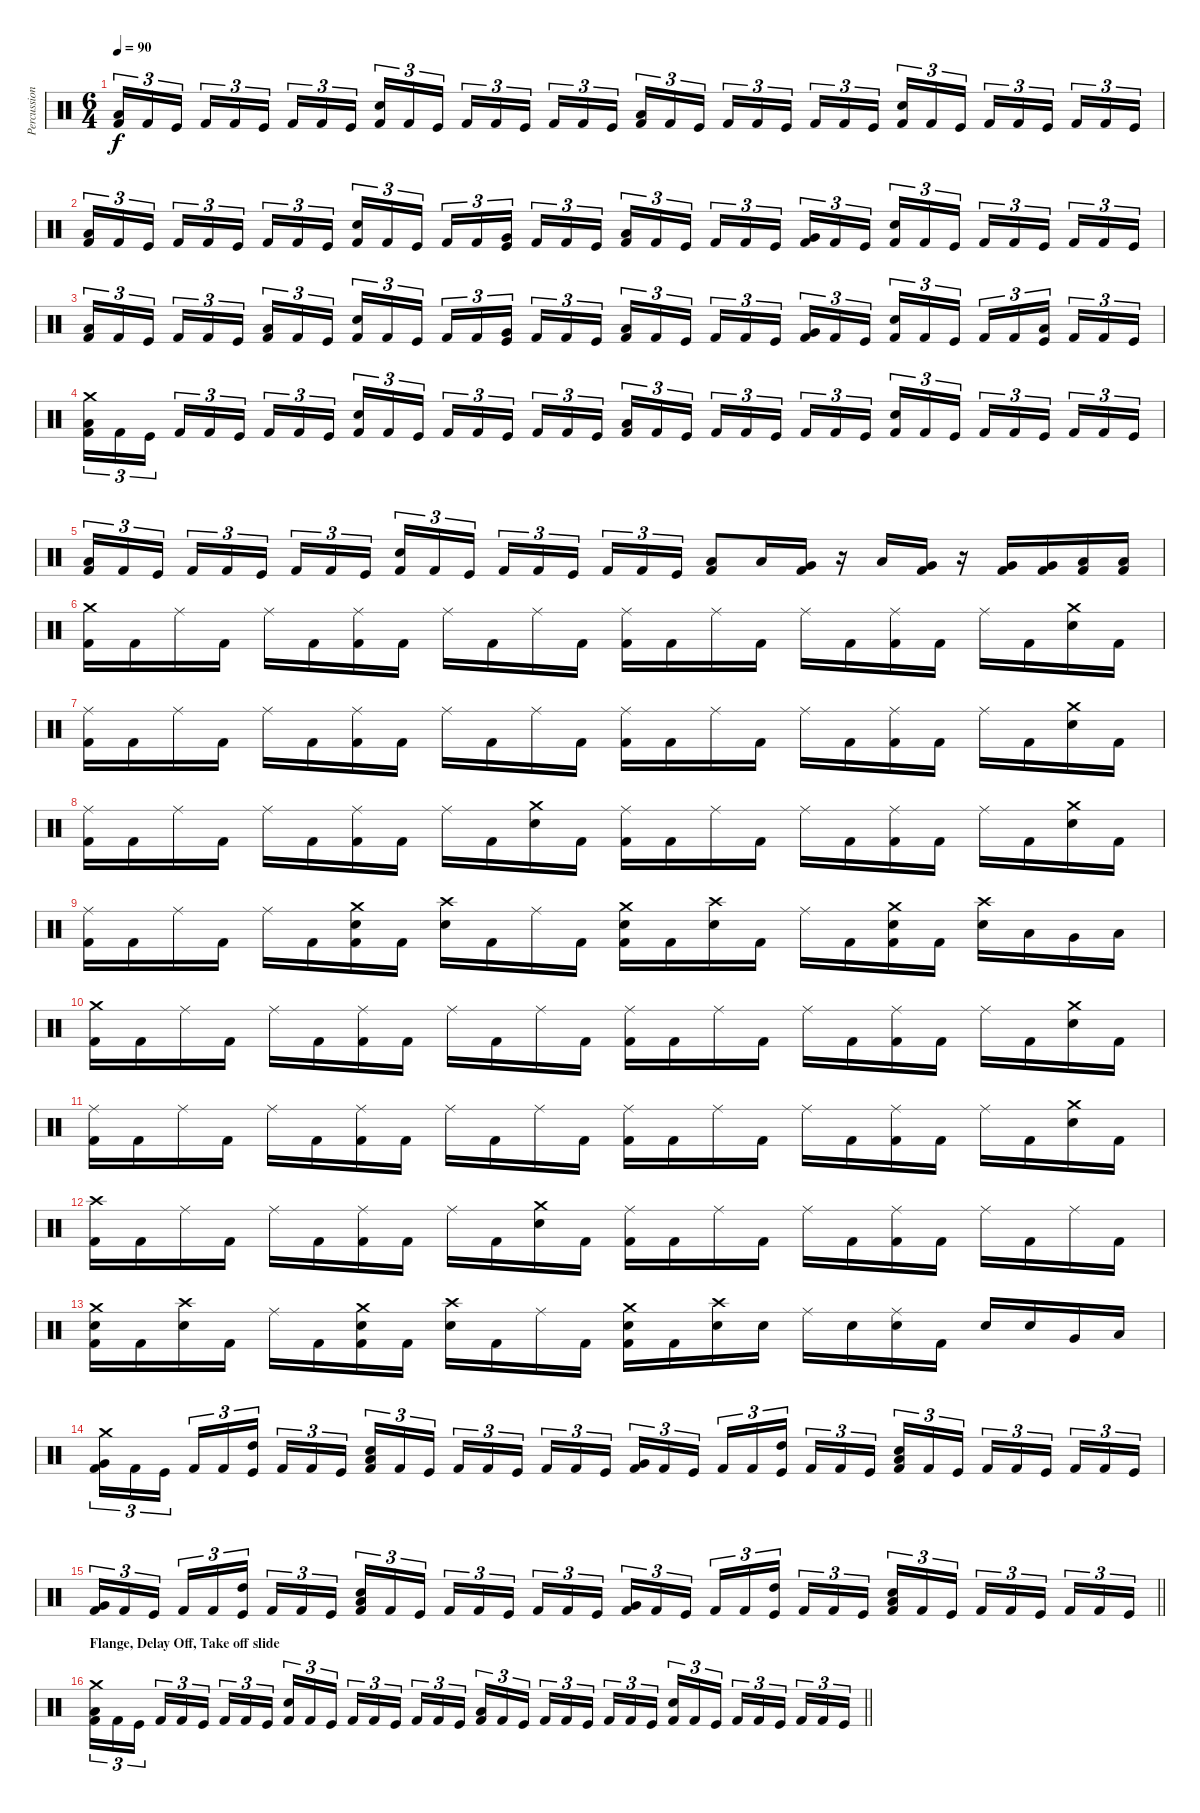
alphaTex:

\track ("Percussion" "Percussion") {instrument percussion}
\staff {score}
\articulation defaults
\ts (6 4)
\tempo 90
\clef neutral
\ks c
("Low Floor Tom (hit)" "Kick (hit) 2").16{tu (3 2) dy f} "Kick (hit) 2".16{tu (3 2)} "Kick (hit)".16{tu (3 2)} "Kick (hit) 2".16{tu (3 2)} "Kick (hit) 2".16{tu (3 2)} "Kick (hit)".16{tu (3 2)} "Kick (hit) 2".16{tu (3 2)} "Kick (hit) 2".16{tu (3 2)} "Kick (hit)".16{tu (3 2)} ("Electric Snare (hit)" "Kick (hit) 2").16{tu (3 2)} "Kick (hit) 2".16{tu (3 2)} "Kick (hit)".16{tu (3 2)} "Kick (hit) 2".16{tu (3 2)} "Kick (hit) 2".16{tu (3 2)} "Kick (hit)".16{tu (3 2)} "Kick (hit) 2".16{tu (3 2)} "Kick (hit) 2".16{tu (3 2)} "Kick (hit)".16{tu (3 2)} ("Low Floor Tom (hit)" "Kick (hit) 2").16{tu (3 2)} "Kick (hit) 2".16{tu (3 2)} "Kick (hit)".16{tu (3 2)} "Kick (hit) 2".16{tu (3 2)} "Kick (hit) 2".16{tu (3 2)} "Kick (hit)".16{tu (3 2)} "Kick (hit) 2".16{tu (3 2)} "Kick (hit) 2".16{tu (3 2)} "Kick (hit)".16{tu (3 2)} ("Electric Snare (hit)" "Kick (hit) 2").16{tu (3 2)} "Kick (hit) 2".16{tu (3 2)} "Kick (hit)".16{tu (3 2)} "Kick (hit) 2".16{tu (3 2)} "Kick (hit) 2".16{tu (3 2)} "Kick (hit)".16{tu (3 2)} "Kick (hit) 2".16{tu (3 2)} "Kick (hit) 2".16{tu (3 2)} "Kick (hit)".16{tu (3 2)} |
("Low Floor Tom (hit)" "Kick (hit) 2").16{tu (3 2)} "Kick (hit) 2".16{tu (3 2)} "Kick (hit)".16{tu (3 2)} "Kick (hit) 2".16{tu (3 2)} "Kick (hit) 2".16{tu (3 2)} "Kick (hit)".16{tu (3 2)} "Kick (hit) 2".16{tu (3 2)} "Kick (hit) 2".16{tu (3 2)} "Kick (hit)".16{tu (3 2)} ("Electric Snare (hit)" "Kick (hit) 2").16{tu (3 2)} "Kick (hit) 2".16{tu (3 2)} "Kick (hit)".16{tu (3 2)} "Kick (hit) 2".16{tu (3 2)} "Kick (hit) 2".16{tu (3 2)} ("Very Low Tom (hit)" "Kick (hit)").16{tu (3 2)} "Kick (hit) 2".16{tu (3 2)} "Kick (hit) 2".16{tu (3 2)} "Kick (hit)".16{tu (3 2)} ("Low Floor Tom (hit)" "Kick (hit) 2").16{tu (3 2)} "Kick (hit) 2".16{tu (3 2)} "Kick (hit)".16{tu (3 2)} "Kick (hit) 2".16{tu (3 2)} "Kick (hit) 2".16{tu (3 2)} "Kick (hit)".16{tu (3 2)} ("Very Low Tom (hit)" "Kick (hit) 2").16{tu (3 2)} "Kick (hit) 2".16{tu (3 2)} "Kick (hit)".16{tu (3 2)} ("Electric Snare (hit)" "Kick (hit) 2").16{tu (3 2)} "Kick (hit) 2".16{tu (3 2)} "Kick (hit)".16{tu (3 2)} "Kick (hit) 2".16{tu (3 2)} "Kick (hit) 2".16{tu (3 2)} "Kick (hit)".16{tu (3 2)} "Kick (hit) 2".16{tu (3 2)} "Kick (hit) 2".16{tu (3 2)} "Kick (hit)".16{tu (3 2)} |
("Low Floor Tom (hit)" "Kick (hit) 2").16{tu (3 2)} "Kick (hit) 2".16{tu (3 2)} "Kick (hit)".16{tu (3 2)} "Kick (hit) 2".16{tu (3 2)} "Kick (hit) 2".16{tu (3 2)} "Kick (hit)".16{tu (3 2)} ("Low Tom (hit)" "Kick (hit) 2").16{tu (3 2)} "Kick (hit) 2".16{tu (3 2)} "Kick (hit)".16{tu (3 2)} ("Electric Snare (hit)" "Kick (hit) 2").16{tu (3 2)} "Kick (hit) 2".16{tu (3 2)} "Kick (hit)".16{tu (3 2)} "Kick (hit) 2".16{tu (3 2)} "Kick (hit) 2".16{tu (3 2)} ("Very Low Tom (hit)" "Kick (hit)").16{tu (3 2)} "Kick (hit) 2".16{tu (3 2)} "Kick (hit) 2".16{tu (3 2)} "Kick (hit)".16{tu (3 2)} ("Low Floor Tom (hit)" "Kick (hit) 2").16{tu (3 2)} "Kick (hit) 2".16{tu (3 2)} "Kick (hit)".16{tu (3 2)} "Kick (hit) 2".16{tu (3 2)} "Kick (hit) 2".16{tu (3 2)} "Kick (hit)".16{tu (3 2)} ("Very Low Tom (hit)" "Kick (hit) 2").16{tu (3 2)} "Kick (hit) 2".16{tu (3 2)} "Kick (hit)".16{tu (3 2)} ("Electric Snare (hit)" "Kick (hit) 2").16{tu (3 2)} "Kick (hit) 2".16{tu (3 2)} "Kick (hit)".16{tu (3 2)} "Kick (hit) 2".16{tu (3 2)} "Kick (hit) 2".16{tu (3 2)} ("Low Tom (hit)" "Kick (hit)").16{tu (3 2)} "Kick (hit) 2".16{tu (3 2)} "Kick (hit) 2".16{tu (3 2)} "Kick (hit)".16{tu (3 2)} |
("Crash medium (hit)" "Low Floor Tom (hit)" "Kick (hit) 2").16{tu (3 2)} "Kick (hit) 2".16{tu (3 2)} "Kick (hit)".16{tu (3 2)} "Kick (hit) 2".16{tu (3 2)} "Kick (hit) 2".16{tu (3 2)} "Kick (hit)".16{tu (3 2)} "Kick (hit) 2".16{tu (3 2)} "Kick (hit) 2".16{tu (3 2)} "Kick (hit)".16{tu (3 2)} ("Electric Snare (hit)" "Kick (hit) 2").16{tu (3 2)} "Kick (hit) 2".16{tu (3 2)} "Kick (hit)".16{tu (3 2)} "Kick (hit) 2".16{tu (3 2)} "Kick (hit) 2".16{tu (3 2)} "Kick (hit)".16{tu (3 2)} "Kick (hit) 2".16{tu (3 2)} "Kick (hit) 2".16{tu (3 2)} "Kick (hit)".16{tu (3 2)} ("Low Floor Tom (hit)" "Kick (hit) 2").16{tu (3 2)} "Kick (hit) 2".16{tu (3 2)} "Kick (hit)".16{tu (3 2)} "Kick (hit) 2".16{tu (3 2)} "Kick (hit) 2".16{tu (3 2)} "Kick (hit)".16{tu (3 2)} "Kick (hit) 2".16{tu (3 2)} "Kick (hit) 2".16{tu (3 2)} "Kick (hit)".16{tu (3 2)} ("Electric Snare (hit)" "Kick (hit) 2").16{tu (3 2)} "Kick (hit) 2".16{tu (3 2)} "Kick (hit)".16{tu (3 2)} "Kick (hit) 2".16{tu (3 2)} "Kick (hit) 2".16{tu (3 2)} "Kick (hit)".16{tu (3 2)} "Kick (hit) 2".16{tu (3 2)} "Kick (hit) 2".16{tu (3 2)} "Kick (hit)".16{tu (3 2)} |
("Low Floor Tom (hit)" "Kick (hit) 2").16{tu (3 2)} "Kick (hit) 2".16{tu (3 2)} "Kick (hit)".16{tu (3 2)} "Kick (hit) 2".16{tu (3 2)} "Kick (hit) 2".16{tu (3 2)} "Kick (hit)".16{tu (3 2)} "Kick (hit) 2".16{tu (3 2)} "Kick (hit) 2".16{tu (3 2)} "Kick (hit)".16{tu (3 2)} ("Electric Snare (hit)" "Kick (hit) 2").16{tu (3 2)} "Kick (hit) 2".16{tu (3 2)} "Kick (hit)".16{tu (3 2)} "Kick (hit) 2".16{tu (3 2)} "Kick (hit) 2".16{tu (3 2)} "Kick (hit)".16{tu (3 2)} "Kick (hit) 2".16{tu (3 2)} "Kick (hit) 2".16{tu (3 2)} "Kick (hit)".16{tu (3 2)} ("Low Floor Tom (hit)" "Kick (hit) 2").8 "Low Tom (hit)".16 ("Very Low Tom (hit)" "Kick (hit) 2").16 r.16 "Low Floor Tom (hit)".16 ("Very Low Tom (hit)" "Kick (hit) 2").16 r.16 ("Very Low Tom (hit)" "Kick (hit) 2").16 ("Very Low Tom (hit)" "Kick (hit) 2").16 ("Low Floor Tom (hit)" "Kick (hit) 2").16 ("Low Floor Tom (hit)" "Kick (hit) 2").16 |
("Crash medium (hit)" "Kick (hit) 2").16 "Kick (hit) 2".16 "Ride (middle)".16 "Kick (hit) 2".16 "Ride (middle)".16 "Kick (hit) 2".16 ("Ride (middle)" "Kick (hit) 2").16 "Kick (hit) 2".16 "Ride (middle)".16 "Kick (hit) 2".16 "Ride (middle)".16 "Kick (hit) 2".16 ("Ride (middle)" "Kick (hit) 2").16 "Kick (hit) 2".16 "Ride (middle)".16 "Kick (hit) 2".16 "Ride (middle)".16 "Kick (hit) 2".16 ("Ride (middle)" "Kick (hit) 2").16 "Kick (hit) 2".16 "Ride (middle)".16 "Kick (hit) 2".16 ("Crash medium (hit)" "Electric Snare (hit)").16 "Kick (hit) 2".16 |
("Ride (middle)" "Kick (hit) 2").16 "Kick (hit) 2".16 "Ride (middle)".16 "Kick (hit) 2".16 "Ride (middle)".16 "Kick (hit) 2".16 ("Ride (middle)" "Kick (hit) 2").16 "Kick (hit) 2".16 "Ride (middle)".16 "Kick (hit) 2".16 "Ride (middle)".16 "Kick (hit) 2".16 ("Ride (middle)" "Kick (hit) 2").16 "Kick (hit) 2".16 "Ride (middle)".16 "Kick (hit) 2".16 "Ride (middle)".16 "Kick (hit) 2".16 ("Ride (middle)" "Kick (hit) 2").16 "Kick (hit) 2".16 "Ride (middle)".16 "Kick (hit) 2".16 ("Crash medium (hit)" "Electric Snare (hit)").16 "Kick (hit) 2".16 |
("Ride (middle)" "Kick (hit) 2").16 "Kick (hit) 2".16 "Ride (middle)".16 "Kick (hit) 2".16 "Ride (middle)".16 "Kick (hit) 2".16 ("Ride (middle)" "Kick (hit) 2").16 "Kick (hit) 2".16 "Ride (middle)".16 "Kick (hit) 2".16 ("Crash medium (hit)" "Electric Snare (hit)").16 "Kick (hit) 2".16 ("Ride (middle)" "Kick (hit) 2").16 "Kick (hit) 2".16 "Ride (middle)".16 "Kick (hit) 2".16 "Ride (middle)".16 "Kick (hit) 2".16 ("Ride (middle)" "Kick (hit) 2").16 "Kick (hit) 2".16 "Ride (middle)".16 "Kick (hit) 2".16 ("Crash medium (hit)" "Electric Snare (hit)").16 "Kick (hit) 2".16 |
("Ride (middle)" "Kick (hit) 2").16 "Kick (hit) 2".16 "Ride (middle)".16 "Kick (hit) 2".16 "Ride (middle)".16 "Kick (hit) 2".16 ("Crash medium (hit)" "Electric Snare (hit)" "Kick (hit) 2").16 "Kick (hit) 2".16 ("Crash high (hit)" "Electric Snare (hit)").16 "Kick (hit) 2".16 "Ride (middle)".16 "Kick (hit) 2".16 ("Crash medium (hit)" "Electric Snare (hit)" "Kick (hit) 2").16 "Kick (hit) 2".16 ("Crash high (hit)" "Electric Snare (hit)").16 "Kick (hit) 2".16 "Ride (middle)".16 "Kick (hit) 2".16 ("Crash medium (hit)" "Electric Snare (hit)" "Kick (hit) 2").16 "Kick (hit) 2".16 ("Crash high (hit)" "Electric Snare (hit)").16 "Low Tom (hit)".16 "Very Low Tom (hit)".16 "Low Floor Tom (hit)".16 |
("Crash medium (hit)" "Kick (hit) 2").16 "Kick (hit) 2".16 "Ride (middle)".16 "Kick (hit) 2".16 "Ride (middle)".16 "Kick (hit) 2".16 ("Ride (middle)" "Kick (hit) 2").16 "Kick (hit) 2".16 "Ride (middle)".16 "Kick (hit) 2".16 "Ride (middle)".16 "Kick (hit) 2".16 ("Ride (middle)" "Kick (hit) 2").16 "Kick (hit) 2".16 "Ride (middle)".16 "Kick (hit) 2".16 "Ride (middle)".16 "Kick (hit) 2".16 ("Ride (middle)" "Kick (hit) 2").16 "Kick (hit) 2".16 "Ride (middle)".16 "Kick (hit) 2".16 ("Crash medium (hit)" "Electric Snare (hit)").16 "Kick (hit) 2".16 |
("Ride (middle)" "Kick (hit) 2").16 "Kick (hit) 2".16 "Ride (middle)".16 "Kick (hit) 2".16 "Ride (middle)".16 "Kick (hit) 2".16 ("Ride (middle)" "Kick (hit) 2").16 "Kick (hit) 2".16 "Ride (middle)".16 "Kick (hit) 2".16 "Ride (middle)".16 "Kick (hit) 2".16 ("Ride (middle)" "Kick (hit) 2").16 "Kick (hit) 2".16 "Ride (middle)".16 "Kick (hit) 2".16 "Ride (middle)".16 "Kick (hit) 2".16 ("Ride (middle)" "Kick (hit) 2").16 "Kick (hit) 2".16 "Ride (middle)".16 "Kick (hit) 2".16 ("Crash medium (hit)" "Electric Snare (hit)").16 "Kick (hit) 2".16 |
("Crash high (hit)" "Kick (hit) 2").16 "Kick (hit) 2".16 "Ride (middle)".16 "Kick (hit) 2".16 "Ride (middle)".16 "Kick (hit) 2".16 ("Ride (middle)" "Kick (hit) 2").16 "Kick (hit) 2".16 "Ride (middle)".16 "Kick (hit) 2".16 ("Crash medium (hit)" "Electric Snare (hit)").16 "Kick (hit) 2".16 ("Ride (middle)" "Kick (hit) 2").16 "Kick (hit) 2".16 "Ride (middle)".16 "Kick (hit) 2".16 "Ride (middle)".16 "Kick (hit) 2".16 ("Ride (middle)" "Kick (hit) 2").16 "Kick (hit) 2".16 "Ride (middle)".16 "Kick (hit) 2".16 "Ride (middle)".16 "Kick (hit) 2".16 |
("Crash medium (hit)" "Electric Snare (hit)" "Kick (hit) 2").16 "Kick (hit) 2".16 ("Crash high (hit)" "Electric Snare (hit)").16 "Kick (hit) 2".16 "Ride (middle)".16 "Kick (hit) 2".16 ("Crash medium (hit)" "Electric Snare (hit)" "Kick (hit) 2").16 "Kick (hit) 2".16 ("Crash high (hit)" "Electric Snare (hit)").16 "Kick (hit) 2".16 "Ride (middle)".16 "Kick (hit) 2".16 ("Crash medium (hit)" "Electric Snare (hit)" "Kick (hit) 2").16 "Kick (hit) 2".16 ("Crash high (hit)" "Electric Snare (hit)").16 "Electric Snare (hit)".16 "Ride (middle)".16 "Electric Snare (hit)".16 ("Ride (middle)" "Electric Snare (hit)").16 "Kick (hit) 2".16 "Electric Snare (hit)".16 "Electric Snare (hit)".16 "Very Low Tom (hit)".16 "Low Floor Tom (hit)".16 |
("Crash medium (hit)" "Very Low Tom (hit)" "Kick (hit) 2").16{tu (3 2)} "Kick (hit) 2".16{tu (3 2)} "Kick (hit)".16{tu (3 2)} "Kick (hit) 2".16{tu (3 2)} "Kick (hit) 2".16{tu (3 2)} ("High Tom (hit)" "Kick (hit)").16{tu (3 2)} "Kick (hit) 2".16{tu (3 2)} "Kick (hit) 2".16{tu (3 2)} "Kick (hit)".16{tu (3 2)} ("Low Tom (hit)" "Electric Snare (hit)" "Kick (hit) 2").16{tu (3 2)} "Kick (hit) 2".16{tu (3 2)} "Kick (hit)".16{tu (3 2)} "Kick (hit) 2".16{tu (3 2)} "Kick (hit) 2".16{tu (3 2)} "Kick (hit)".16{tu (3 2)} "Kick (hit) 2".16{tu (3 2)} "Kick (hit) 2".16{tu (3 2)} "Kick (hit)".16{tu (3 2)} ("Very Low Tom (hit)" "Kick (hit) 2").16{tu (3 2)} "Kick (hit) 2".16{tu (3 2)} "Kick (hit)".16{tu (3 2)} "Kick (hit) 2".16{tu (3 2)} "Kick (hit) 2".16{tu (3 2)} ("High Tom (hit)" "Kick (hit)").16{tu (3 2)} "Kick (hit) 2".16{tu (3 2)} "Kick (hit) 2".16{tu (3 2)} "Kick (hit)".16{tu (3 2)} ("Low Tom (hit)" "Electric Snare (hit)" "Kick (hit) 2").16{tu (3 2)} "Kick (hit) 2".16{tu (3 2)} "Kick (hit)".16{tu (3 2)} "Kick (hit) 2".16{tu (3 2)} "Kick (hit) 2".16{tu (3 2)} "Kick (hit)".16{tu (3 2)} "Kick (hit) 2".16{tu (3 2)} "Kick (hit) 2".16{tu (3 2)} "Kick (hit)".16{tu (3 2)} |
\barLineRight lightlight
("Very Low Tom (hit)" "Kick (hit) 2").16{tu (3 2)} "Kick (hit) 2".16{tu (3 2)} "Kick (hit)".16{tu (3 2)} "Kick (hit) 2".16{tu (3 2)} "Kick (hit) 2".16{tu (3 2)} ("High Tom (hit)" "Kick (hit)").16{tu (3 2)} "Kick (hit) 2".16{tu (3 2)} "Kick (hit) 2".16{tu (3 2)} "Kick (hit)".16{tu (3 2)} ("Low Tom (hit)" "Electric Snare (hit)" "Kick (hit) 2").16{tu (3 2)} "Kick (hit) 2".16{tu (3 2)} "Kick (hit)".16{tu (3 2)} "Kick (hit) 2".16{tu (3 2)} "Kick (hit) 2".16{tu (3 2)} "Kick (hit)".16{tu (3 2)} "Kick (hit) 2".16{tu (3 2)} "Kick (hit) 2".16{tu (3 2)} "Kick (hit)".16{tu (3 2)} ("Very Low Tom (hit)" "Kick (hit) 2").16{tu (3 2)} "Kick (hit) 2".16{tu (3 2)} "Kick (hit)".16{tu (3 2)} "Kick (hit) 2".16{tu (3 2)} "Kick (hit) 2".16{tu (3 2)} ("High Tom (hit)" "Kick (hit)").16{tu (3 2)} "Kick (hit) 2".16{tu (3 2)} "Kick (hit) 2".16{tu (3 2)} "Kick (hit)".16{tu (3 2)} ("Low Tom (hit)" "Electric Snare (hit)" "Kick (hit) 2").16{tu (3 2)} "Kick (hit) 2".16{tu (3 2)} "Kick (hit)".16{tu (3 2)} "Kick (hit) 2".16{tu (3 2)} "Kick (hit) 2".16{tu (3 2)} "Kick (hit)".16{tu (3 2)} "Kick (hit) 2".16{tu (3 2)} "Kick (hit) 2".16{tu (3 2)} "Kick (hit)".16{tu (3 2)} |
\section ("" "Flange, Delay Off, Take off slide")
\barLineRight lightlight
("Crash medium (hit)" "Low Floor Tom (hit)" "Kick (hit) 2").16{tu (3 2)} "Kick (hit) 2".16{tu (3 2)} "Kick (hit)".16{tu (3 2)} "Kick (hit) 2".16{tu (3 2)} "Kick (hit) 2".16{tu (3 2)} "Kick (hit)".16{tu (3 2)} "Kick (hit) 2".16{tu (3 2)} "Kick (hit) 2".16{tu (3 2)} "Kick (hit)".16{tu (3 2)} ("Electric Snare (hit)" "Kick (hit) 2").16{tu (3 2)} "Kick (hit) 2".16{tu (3 2)} "Kick (hit)".16{tu (3 2)} "Kick (hit) 2".16{tu (3 2)} "Kick (hit) 2".16{tu (3 2)} "Kick (hit)".16{tu (3 2)} "Kick (hit) 2".16{tu (3 2)} "Kick (hit) 2".16{tu (3 2)} "Kick (hit)".16{tu (3 2)} ("Low Floor Tom (hit)" "Kick (hit) 2").16{tu (3 2)} "Kick (hit) 2".16{tu (3 2)} "Kick (hit)".16{tu (3 2)} "Kick (hit) 2".16{tu (3 2)} "Kick (hit) 2".16{tu (3 2)} "Kick (hit)".16{tu (3 2)} "Kick (hit) 2".16{tu (3 2)} "Kick (hit) 2".16{tu (3 2)} "Kick (hit)".16{tu (3 2)} ("Electric Snare (hit)" "Kick (hit) 2").16{tu (3 2)} "Kick (hit) 2".16{tu (3 2)} "Kick (hit)".16{tu (3 2)} "Kick (hit) 2".16{tu (3 2)} "Kick (hit) 2".16{tu (3 2)} "Kick (hit)".16{tu (3 2)} "Kick (hit) 2".16{tu (3 2)} "Kick (hit) 2".16{tu (3 2)} "Kick (hit)".16{tu (3 2)}
